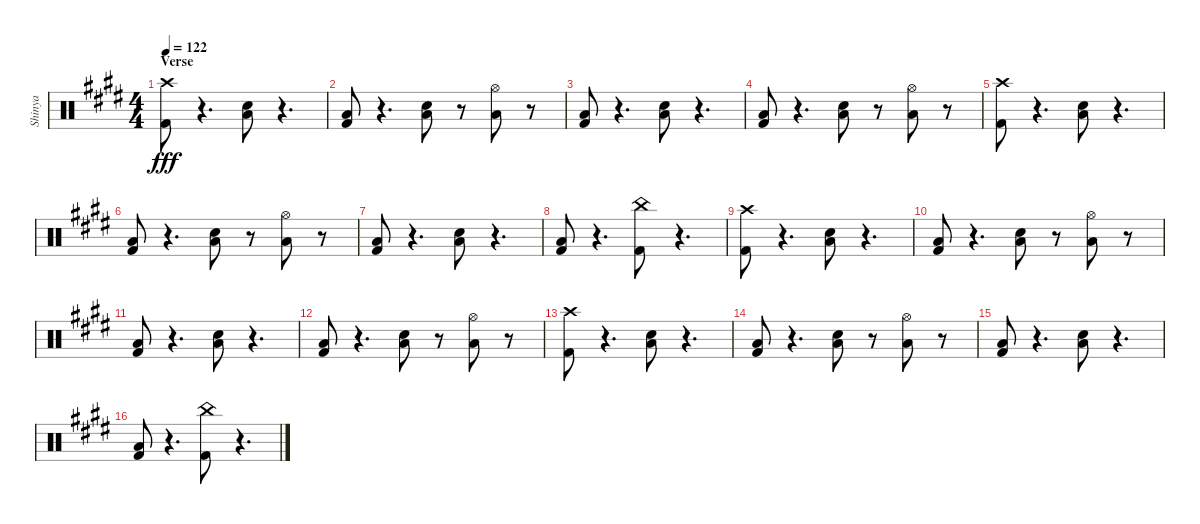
\track ("Shinya" "Shinya") {instrument percussion}
\staff {score}
\articulation defaults
\ts (4 4)
\section ("" "Verse")
\tempo 122
\clef neutral
\ks c#minor
("Kick (hit) 2" "Crash high (hit)").8{dy fff} r.4{d} ("Snare (hit) 2" "Low Tom (hit)").8 r.4{d} |
("Kick (hit) 2" "Low Tom (hit)").8 r.4{d} ("Snare (hit) 2" "Low Tom (hit)").8 r.8 ("Low Tom (hit)" "Hi-Hat (open)").8 r.8 |
("Kick (hit) 2" "Low Tom (hit)").8 r.4{d} ("Snare (hit) 2" "Low Tom (hit)").8 r.4{d} |
("Kick (hit) 2" "Low Tom (hit)").8 r.4{d} ("Snare (hit) 2" "Low Tom (hit)").8 r.8 ("Low Tom (hit)" "Hi-Hat (open)").8 r.8 |
("Kick (hit) 2" "Crash high (hit)").8 r.4{d} ("Snare (hit) 2" "Low Tom (hit)").8 r.4{d} |
("Kick (hit) 2" "Low Tom (hit)").8 r.4{d} ("Snare (hit) 2" "Low Tom (hit)").8 r.8 ("Low Tom (hit)" "Hi-Hat (open)").8 r.8 |
("Kick (hit) 2" "Low Tom (hit)").8 r.4{d} ("Snare (hit) 2" "Low Tom (hit)").8 r.4{d} |
("Kick (hit) 2" "Low Tom (hit)").8 r.4{d} ("Kick (hit) 2" "China (hit)").8 r.4{d} |
("Kick (hit) 2" "Crash high (hit)").8 r.4{d} ("Snare (hit) 2" "Low Tom (hit)").8 r.4{d} |
("Kick (hit) 2" "Low Tom (hit)").8 r.4{d} ("Snare (hit) 2" "Low Tom (hit)").8 r.8 ("Low Tom (hit)" "Hi-Hat (open)").8 r.8 |
("Kick (hit) 2" "Low Tom (hit)").8 r.4{d} ("Snare (hit) 2" "Low Tom (hit)").8 r.4{d} |
("Kick (hit) 2" "Low Tom (hit)").8 r.4{d} ("Snare (hit) 2" "Low Tom (hit)").8 r.8 ("Low Tom (hit)" "Hi-Hat (open)").8 r.8 |
("Kick (hit) 2" "Crash high (hit)").8 r.4{d} ("Snare (hit) 2" "Low Tom (hit)").8 r.4{d} |
("Kick (hit) 2" "Low Tom (hit)").8 r.4{d} ("Snare (hit) 2" "Low Tom (hit)").8 r.8 ("Low Tom (hit)" "Hi-Hat (open)").8 r.8 |
("Kick (hit) 2" "Low Tom (hit)").8 r.4{d} ("Snare (hit) 2" "Low Tom (hit)").8 r.4{d} |
("Kick (hit) 2" "Low Tom (hit)").8 r.4{d} ("Kick (hit) 2" "China (hit)").8 r.4{d}
